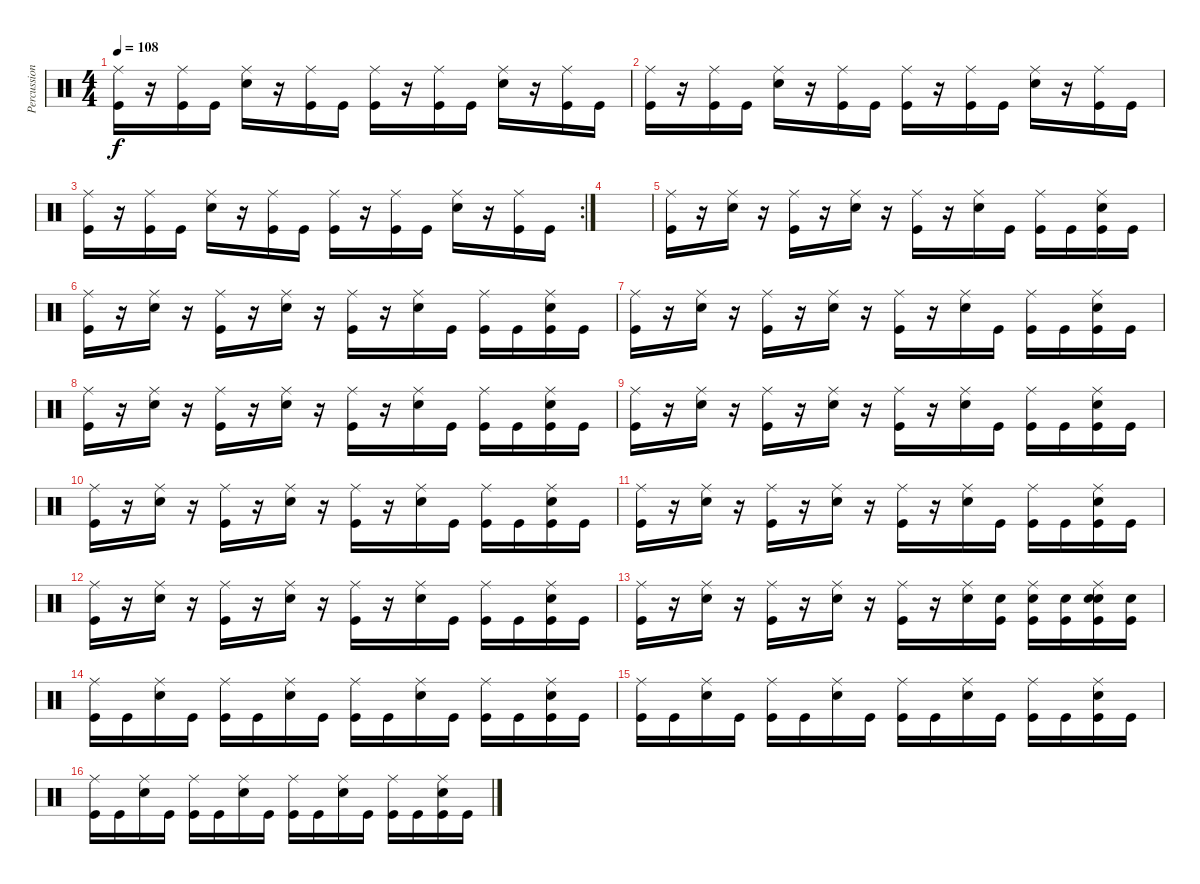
\track ("Percussions" "Percussion") {instrument percussion}
\staff {score}
\articulation defaults
\ts (4 4)
\tempo 108
\clef neutral
\ks c
("Ride (middle)" "Kick (hit)").16{dy f} r.16 ("Ride (middle)" "Kick (hit)").16 "Kick (hit)".16 ("Ride (middle)" "Electric Snare (hit)").16 r.16 ("Ride (middle)" "Kick (hit)").16 "Kick (hit)".16 ("Ride (middle)" "Kick (hit)").16 r.16 ("Ride (middle)" "Kick (hit)").16 "Kick (hit)".16 ("Ride (middle)" "Electric Snare (hit)").16 r.16 ("Ride (middle)" "Kick (hit)").16 "Kick (hit)".16 |
("Ride (middle)" "Kick (hit)").16 r.16 ("Ride (middle)" "Kick (hit)").16 "Kick (hit)".16 ("Ride (middle)" "Electric Snare (hit)").16 r.16 ("Ride (middle)" "Kick (hit)").16 "Kick (hit)".16 ("Ride (middle)" "Kick (hit)").16 r.16 ("Ride (middle)" "Kick (hit)").16 "Kick (hit)".16 ("Ride (middle)" "Electric Snare (hit)").16 r.16 ("Ride (middle)" "Kick (hit)").16 "Kick (hit)".16 |
\rc 2
("Ride (middle)" "Kick (hit)").16 r.16 ("Ride (middle)" "Kick (hit)").16 "Kick (hit)".16 ("Ride (middle)" "Electric Snare (hit)").16 r.16 ("Ride (middle)" "Kick (hit)").16 "Kick (hit)".16 ("Ride (middle)" "Kick (hit)").16 r.16 ("Ride (middle)" "Kick (hit)").16 "Kick (hit)".16 ("Ride (middle)" "Electric Snare (hit)").16 r.16 ("Ride (middle)" "Kick (hit)").16 "Kick (hit)".16 |
|
("Ride (middle)" "Kick (hit)").16 r.16 ("Ride (middle)" "Electric Snare (hit)").16 r.16 ("Ride (middle)" "Kick (hit)").16 r.16 ("Ride (middle)" "Electric Snare (hit)").16 r.16 ("Ride (middle)" "Kick (hit)").16 r.16 ("Ride (middle)" "Electric Snare (hit)").16 "Kick (hit)".16 ("Ride (middle)" "Kick (hit)").16 "Kick (hit)".16 ("Ride (middle)" "Electric Snare (hit)" "Kick (hit)").16 "Kick (hit)".16 |
("Ride (middle)" "Kick (hit)").16 r.16 ("Ride (middle)" "Electric Snare (hit)").16 r.16 ("Ride (middle)" "Kick (hit)").16 r.16 ("Ride (middle)" "Electric Snare (hit)").16 r.16 ("Ride (middle)" "Kick (hit)").16 r.16 ("Ride (middle)" "Electric Snare (hit)").16 "Kick (hit)".16 ("Ride (middle)" "Kick (hit)").16 "Kick (hit)".16 ("Ride (middle)" "Electric Snare (hit)" "Kick (hit)").16 "Kick (hit)".16 |
("Ride (middle)" "Kick (hit)").16 r.16 ("Ride (middle)" "Electric Snare (hit)").16 r.16 ("Ride (middle)" "Kick (hit)").16 r.16 ("Ride (middle)" "Electric Snare (hit)").16 r.16 ("Ride (middle)" "Kick (hit)").16 r.16 ("Ride (middle)" "Electric Snare (hit)").16 "Kick (hit)".16 ("Ride (middle)" "Kick (hit)").16 "Kick (hit)".16 ("Ride (middle)" "Electric Snare (hit)" "Kick (hit)").16 "Kick (hit)".16 |
("Ride (middle)" "Kick (hit)").16 r.16 ("Ride (middle)" "Electric Snare (hit)").16 r.16 ("Ride (middle)" "Kick (hit)").16 r.16 ("Ride (middle)" "Electric Snare (hit)").16 r.16 ("Ride (middle)" "Kick (hit)").16 r.16 ("Ride (middle)" "Electric Snare (hit)").16 "Kick (hit)".16 ("Ride (middle)" "Kick (hit)").16 "Kick (hit)".16 ("Ride (middle)" "Electric Snare (hit)" "Kick (hit)").16 "Kick (hit)".16 |
("Ride (middle)" "Kick (hit)").16 r.16 ("Ride (middle)" "Electric Snare (hit)").16 r.16 ("Ride (middle)" "Kick (hit)").16 r.16 ("Ride (middle)" "Electric Snare (hit)").16 r.16 ("Ride (middle)" "Kick (hit)").16 r.16 ("Ride (middle)" "Electric Snare (hit)").16 "Kick (hit)".16 ("Ride (middle)" "Kick (hit)").16 "Kick (hit)".16 ("Ride (middle)" "Electric Snare (hit)" "Kick (hit)").16 "Kick (hit)".16 |
("Ride (middle)" "Kick (hit)").16 r.16 ("Ride (middle)" "Electric Snare (hit)").16 r.16 ("Ride (middle)" "Kick (hit)").16 r.16 ("Ride (middle)" "Electric Snare (hit)").16 r.16 ("Ride (middle)" "Kick (hit)").16 r.16 ("Ride (middle)" "Electric Snare (hit)").16 "Kick (hit)".16 ("Ride (middle)" "Kick (hit)").16 "Kick (hit)".16 ("Ride (middle)" "Electric Snare (hit)" "Kick (hit)").16 "Kick (hit)".16 |
("Ride (middle)" "Kick (hit)").16 r.16 ("Ride (middle)" "Electric Snare (hit)").16 r.16 ("Ride (middle)" "Kick (hit)").16 r.16 ("Ride (middle)" "Electric Snare (hit)").16 r.16 ("Ride (middle)" "Kick (hit)").16 r.16 ("Ride (middle)" "Electric Snare (hit)").16 "Kick (hit)".16 ("Ride (middle)" "Kick (hit)").16 "Kick (hit)".16 ("Ride (middle)" "Electric Snare (hit)" "Kick (hit)").16 "Kick (hit)".16 |
("Ride (middle)" "Kick (hit)").16 r.16 ("Ride (middle)" "Electric Snare (hit)").16 r.16 ("Ride (middle)" "Kick (hit)").16 r.16 ("Ride (middle)" "Electric Snare (hit)").16 r.16 ("Ride (middle)" "Kick (hit)").16 r.16 ("Ride (middle)" "Electric Snare (hit)").16 "Kick (hit)".16 ("Ride (middle)" "Kick (hit)").16 "Kick (hit)".16 ("Ride (middle)" "Electric Snare (hit)" "Kick (hit)").16 "Kick (hit)".16 |
("Ride (middle)" "Kick (hit)").16 r.16 ("Ride (middle)" "Electric Snare (hit)").16 r.16 ("Ride (middle)" "Kick (hit)").16 r.16 ("Ride (middle)" "Electric Snare (hit)").16 r.16 ("Ride (middle)" "Kick (hit)").16 r.16 ("Ride (middle)" "Electric Snare (hit)").16 ("Snare (hit) 2" "Kick (hit)").16 ("Ride (middle)" "Snare (hit) 2" "Kick (hit)").16 ("Snare (hit) 2" "Kick (hit)").16 ("Ride (middle)" "Snare (hit) 2" "Electric Snare (hit)" "Kick (hit)").16 ("Snare (hit) 2" "Kick (hit)").16 |
("Ride (middle)" "Kick (hit)").16 "Kick (hit)".16 ("Ride (middle)" "Electric Snare (hit)").16 "Kick (hit)".16 ("Ride (middle)" "Kick (hit)").16 "Kick (hit)".16 ("Ride (middle)" "Electric Snare (hit)").16 "Kick (hit)".16 ("Ride (middle)" "Kick (hit)").16 "Kick (hit)".16 ("Ride (middle)" "Electric Snare (hit)").16 "Kick (hit)".16 ("Ride (middle)" "Kick (hit)").16 "Kick (hit)".16 ("Ride (middle)" "Electric Snare (hit)" "Kick (hit)").16 "Kick (hit)".16 |
("Ride (middle)" "Kick (hit)").16 "Kick (hit)".16 ("Ride (middle)" "Electric Snare (hit)").16 "Kick (hit)".16 ("Ride (middle)" "Kick (hit)").16 "Kick (hit)".16 ("Ride (middle)" "Electric Snare (hit)").16 "Kick (hit)".16 ("Ride (middle)" "Kick (hit)").16 "Kick (hit)".16 ("Ride (middle)" "Electric Snare (hit)").16 "Kick (hit)".16 ("Ride (middle)" "Kick (hit)").16 "Kick (hit)".16 ("Ride (middle)" "Electric Snare (hit)" "Kick (hit)").16 "Kick (hit)".16 |
("Ride (middle)" "Kick (hit)").16 "Kick (hit)".16 ("Ride (middle)" "Electric Snare (hit)").16 "Kick (hit)".16 ("Ride (middle)" "Kick (hit)").16 "Kick (hit)".16 ("Ride (middle)" "Electric Snare (hit)").16 "Kick (hit)".16 ("Ride (middle)" "Kick (hit)").16 "Kick (hit)".16 ("Ride (middle)" "Electric Snare (hit)").16 "Kick (hit)".16 ("Ride (middle)" "Kick (hit)").16 "Kick (hit)".16 ("Ride (middle)" "Electric Snare (hit)" "Kick (hit)").16 "Kick (hit)".16
